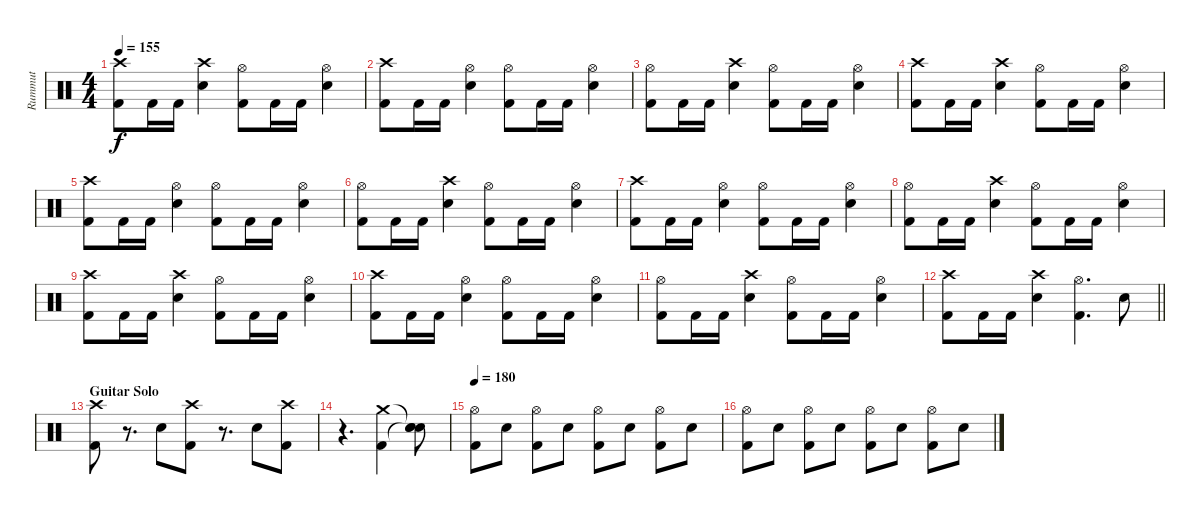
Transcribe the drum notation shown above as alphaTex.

\track ("Rummut" "Rummut") {instrument percussion}
\staff {score}
\articulation defaults
\ts (4 4)
\tempo 155
\clef neutral
\ks c
("Crash high (hit)" "Kick (hit) 2").8{dy f} "Kick (hit) 2".16 "Kick (hit) 2".16 ("Crash high (hit)" "Electric Snare (hit)").4 ("Hi-Hat (open)" "Kick (hit) 2").8 "Kick (hit) 2".16 "Kick (hit) 2".16 ("Hi-Hat (open)" "Electric Snare (hit)").4 |
("Crash high (hit)" "Kick (hit) 2").8 "Kick (hit) 2".16 "Kick (hit) 2".16 ("Hi-Hat (open)" "Electric Snare (hit)").4 ("Hi-Hat (open)" "Kick (hit) 2").8 "Kick (hit) 2".16 "Kick (hit) 2".16 ("Hi-Hat (open)" "Electric Snare (hit)").4 |
("Hi-Hat (open)" "Kick (hit) 2").8 "Kick (hit) 2".16 "Kick (hit) 2".16 ("Crash high (hit)" "Electric Snare (hit)").4 ("Hi-Hat (open)" "Kick (hit) 2").8 "Kick (hit) 2".16 "Kick (hit) 2".16 ("Hi-Hat (open)" "Electric Snare (hit)").4 |
("Crash high (hit)" "Kick (hit) 2").8 "Kick (hit) 2".16 "Kick (hit) 2".16 ("Crash high (hit)" "Electric Snare (hit)").4 ("Hi-Hat (open)" "Kick (hit) 2").8 "Kick (hit) 2".16 "Kick (hit) 2".16 ("Hi-Hat (open)" "Electric Snare (hit)").4 |
("Crash high (hit)" "Kick (hit) 2").8 "Kick (hit) 2".16 "Kick (hit) 2".16 ("Hi-Hat (open)" "Electric Snare (hit)").4 ("Hi-Hat (open)" "Kick (hit) 2").8 "Kick (hit) 2".16 "Kick (hit) 2".16 ("Hi-Hat (open)" "Electric Snare (hit)").4 |
("Hi-Hat (open)" "Kick (hit) 2").8 "Kick (hit) 2".16 "Kick (hit) 2".16 ("Crash high (hit)" "Electric Snare (hit)").4 ("Hi-Hat (open)" "Kick (hit) 2").8 "Kick (hit) 2".16 "Kick (hit) 2".16 ("Hi-Hat (open)" "Electric Snare (hit)").4 |
("Crash high (hit)" "Kick (hit) 2").8 "Kick (hit) 2".16 "Kick (hit) 2".16 ("Hi-Hat (open)" "Electric Snare (hit)").4 ("Hi-Hat (open)" "Kick (hit) 2").8 "Kick (hit) 2".16 "Kick (hit) 2".16 ("Hi-Hat (open)" "Electric Snare (hit)").4 |
("Hi-Hat (open)" "Kick (hit) 2").8 "Kick (hit) 2".16 "Kick (hit) 2".16 ("Crash high (hit)" "Electric Snare (hit)").4 ("Hi-Hat (open)" "Kick (hit) 2").8 "Kick (hit) 2".16 "Kick (hit) 2".16 ("Hi-Hat (open)" "Electric Snare (hit)").4 |
("Crash high (hit)" "Kick (hit) 2").8 "Kick (hit) 2".16 "Kick (hit) 2".16 ("Crash high (hit)" "Electric Snare (hit)").4 ("Hi-Hat (open)" "Kick (hit) 2").8 "Kick (hit) 2".16 "Kick (hit) 2".16 ("Hi-Hat (open)" "Electric Snare (hit)").4 |
("Crash high (hit)" "Kick (hit) 2").8 "Kick (hit) 2".16 "Kick (hit) 2".16 ("Hi-Hat (open)" "Electric Snare (hit)").4 ("Hi-Hat (open)" "Kick (hit) 2").8 "Kick (hit) 2".16 "Kick (hit) 2".16 ("Hi-Hat (open)" "Electric Snare (hit)").4 |
("Hi-Hat (open)" "Kick (hit) 2").8 "Kick (hit) 2".16 "Kick (hit) 2".16 ("Crash high (hit)" "Electric Snare (hit)").4 ("Hi-Hat (open)" "Kick (hit) 2").8 "Kick (hit) 2".16 "Kick (hit) 2".16 ("Hi-Hat (open)" "Electric Snare (hit)").4 |
\barLineRight lightlight
("Crash high (hit)" "Kick (hit) 2").8 "Kick (hit) 2".16 "Kick (hit) 2".16 ("Crash high (hit)" "Electric Snare (hit)").4 ("Hi-Hat (open)" "Kick (hit) 2").4{d} "Electric Snare (hit)".8 |
\section ("" "Guitar Solo")
("Crash high (hit)" "Kick (hit) 2").8 r.8{d} "Electric Snare (hit)".8 ("Crash high (hit)" "Kick (hit) 2").8 r.8{d} "Electric Snare (hit)".8 ("Crash high (hit)" "Kick (hit) 2").8 |
r.4{d} ("Crash medium (hit)" "Kick (hit) 2").4 ("Snare (hit)"{t} "Snare (hit)"{t} "Snare (hit)").8 |
\tempo 180
("Hi-Hat (open)" "Kick (hit) 2").8 "Electric Snare (hit)".8 ("Hi-Hat (open)" "Kick (hit) 2").8 "Electric Snare (hit)".8 ("Hi-Hat (open)" "Kick (hit) 2").8 "Electric Snare (hit)".8 ("Hi-Hat (open)" "Kick (hit) 2").8 "Electric Snare (hit)".8 |
("Hi-Hat (open)" "Kick (hit) 2").8 "Electric Snare (hit)".8 ("Hi-Hat (open)" "Kick (hit) 2").8 "Electric Snare (hit)".8 ("Hi-Hat (open)" "Kick (hit) 2").8 "Electric Snare (hit)".8 ("Hi-Hat (open)" "Kick (hit) 2").8 "Electric Snare (hit)".8
